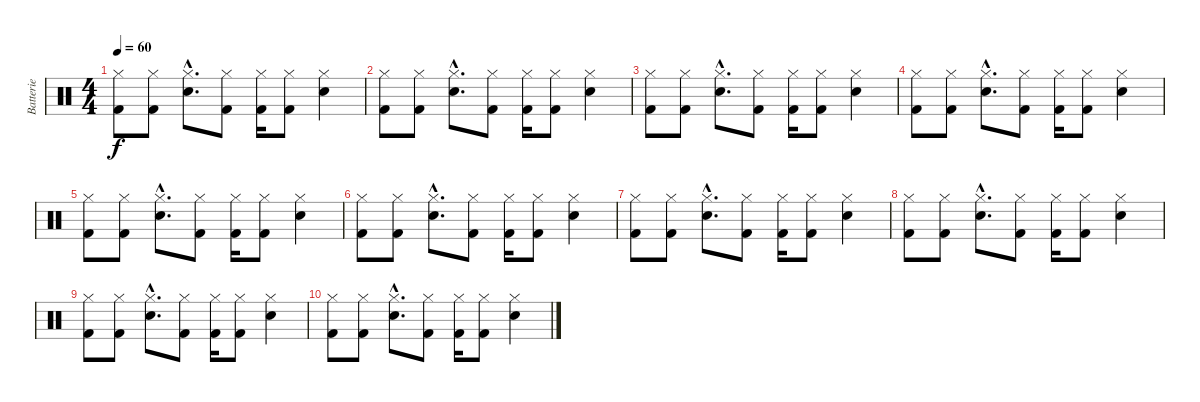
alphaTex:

\track ("Batterie" "Batterie") {instrument percussion}
\staff {score}
\articulation defaults
\ts (4 4)
\tempo 60
\clef neutral
\ks c
("Hi-Hat (closed)" "Kick (hit) 2").8{dy f} ("Hi-Hat (closed)" "Kick (hit) 2").8 ("Hi-Hat (closed)"{hac} "Snare (hit) 2"{hac}).8{d} ("Hi-Hat (closed)" "Kick (hit) 2").8 ("Hi-Hat (closed)" "Kick (hit) 2").16 ("Hi-Hat (closed)" "Kick (hit) 2").8 ("Hi-Hat (closed)" "Snare (hit) 2").4 |
("Hi-Hat (closed)" "Kick (hit) 2").8 ("Hi-Hat (closed)" "Kick (hit) 2").8 ("Hi-Hat (closed)"{hac} "Snare (hit) 2"{hac}).8{d} ("Hi-Hat (closed)" "Kick (hit) 2").8 ("Hi-Hat (closed)" "Kick (hit) 2").16 ("Hi-Hat (closed)" "Kick (hit) 2").8 ("Hi-Hat (closed)" "Snare (hit) 2").4 |
("Hi-Hat (closed)" "Kick (hit) 2").8 ("Hi-Hat (closed)" "Kick (hit) 2").8 ("Hi-Hat (closed)"{hac} "Snare (hit) 2"{hac}).8{d} ("Hi-Hat (closed)" "Kick (hit) 2").8 ("Hi-Hat (closed)" "Kick (hit) 2").16 ("Hi-Hat (closed)" "Kick (hit) 2").8 ("Hi-Hat (closed)" "Snare (hit) 2").4 |
("Hi-Hat (closed)" "Kick (hit) 2").8 ("Hi-Hat (closed)" "Kick (hit) 2").8 ("Hi-Hat (closed)"{hac} "Snare (hit) 2"{hac}).8{d} ("Hi-Hat (closed)" "Kick (hit) 2").8 ("Hi-Hat (closed)" "Kick (hit) 2").16 ("Hi-Hat (closed)" "Kick (hit) 2").8 ("Hi-Hat (closed)" "Snare (hit) 2").4 |
("Hi-Hat (closed)" "Kick (hit) 2").8 ("Hi-Hat (closed)" "Kick (hit) 2").8 ("Hi-Hat (closed)"{hac} "Snare (hit) 2"{hac}).8{d} ("Hi-Hat (closed)" "Kick (hit) 2").8 ("Hi-Hat (closed)" "Kick (hit) 2").16 ("Hi-Hat (closed)" "Kick (hit) 2").8 ("Hi-Hat (closed)" "Snare (hit) 2").4 |
("Hi-Hat (closed)" "Kick (hit) 2").8 ("Hi-Hat (closed)" "Kick (hit) 2").8 ("Hi-Hat (closed)"{hac} "Snare (hit) 2"{hac}).8{d} ("Hi-Hat (closed)" "Kick (hit) 2").8 ("Hi-Hat (closed)" "Kick (hit) 2").16 ("Hi-Hat (closed)" "Kick (hit) 2").8 ("Hi-Hat (closed)" "Snare (hit) 2").4 |
("Hi-Hat (closed)" "Kick (hit) 2").8 ("Hi-Hat (closed)" "Kick (hit) 2").8 ("Hi-Hat (closed)"{hac} "Snare (hit) 2"{hac}).8{d} ("Hi-Hat (closed)" "Kick (hit) 2").8 ("Hi-Hat (closed)" "Kick (hit) 2").16 ("Hi-Hat (closed)" "Kick (hit) 2").8 ("Hi-Hat (closed)" "Snare (hit) 2").4 |
("Hi-Hat (closed)" "Kick (hit) 2").8 ("Hi-Hat (closed)" "Kick (hit) 2").8 ("Hi-Hat (closed)"{hac} "Snare (hit) 2"{hac}).8{d} ("Hi-Hat (closed)" "Kick (hit) 2").8 ("Hi-Hat (closed)" "Kick (hit) 2").16 ("Hi-Hat (closed)" "Kick (hit) 2").8 ("Hi-Hat (closed)" "Snare (hit) 2").4 |
("Hi-Hat (closed)" "Kick (hit) 2").8 ("Hi-Hat (closed)" "Kick (hit) 2").8 ("Hi-Hat (closed)"{hac} "Snare (hit) 2"{hac}).8{d} ("Hi-Hat (closed)" "Kick (hit) 2").8 ("Hi-Hat (closed)" "Kick (hit) 2").16 ("Hi-Hat (closed)" "Kick (hit) 2").8 ("Hi-Hat (closed)" "Snare (hit) 2").4 |
("Hi-Hat (closed)" "Kick (hit) 2").8 ("Hi-Hat (closed)" "Kick (hit) 2").8 ("Hi-Hat (closed)"{hac} "Snare (hit) 2"{hac}).8{d} ("Hi-Hat (closed)" "Kick (hit) 2").8 ("Hi-Hat (closed)" "Kick (hit) 2").16 ("Hi-Hat (closed)" "Kick (hit) 2").8 ("Hi-Hat (closed)" "Snare (hit) 2").4
